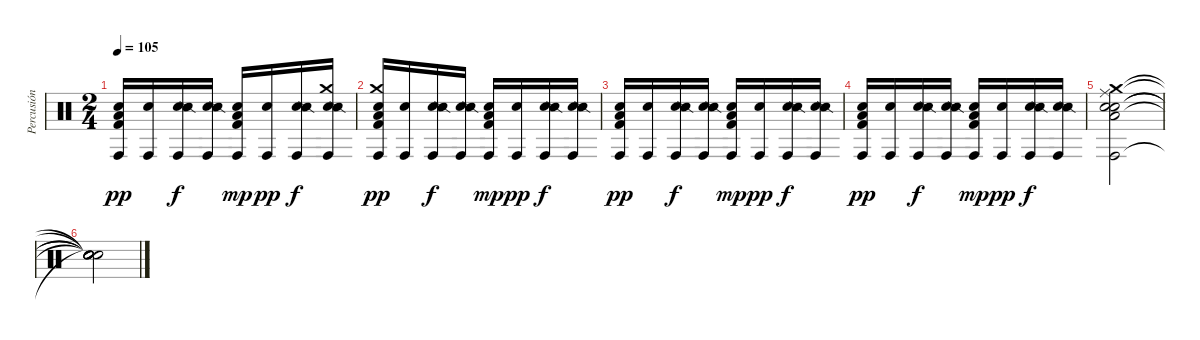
\track ("Percusión" "Percusión") {instrument percussion}
\staff {score}
\articulation defaults
\ts (2 4)
\tempo 105
\clef neutral
\ks c
("Electric Snare (hit)" "Kick (hit) 2" "Conga high (hit)" "Low Floor Tom (hit)").16{dy pp} ("Electric Snare (hit)" "Conga high (hit)").16 ("Electric Snare (hit)" "Snare (side stick) 2" "Conga high (hit)").16{dy f} ("Electric Snare (hit)" "Snare (side stick) 2" "Conga high (hit)").16 ("Electric Snare (hit)" "Conga high (hit)" "Kick (hit) 2" "Low Floor Tom (hit)").16{dy mp} ("Electric Snare (hit)" "Conga high (hit)").16{dy pp} ("Electric Snare (hit)" "Snare (side stick) 2" "Conga high (hit)").16{dy f} ("Electric Snare (hit)" "Snare (side stick) 2" "Conga high (hit)" "Crash medium (hit)").16 |
("Crash medium (hit)" "Electric Snare (hit)" "Kick (hit) 2" "Conga high (hit)" "Low Floor Tom (hit)").16{dy pp} ("Electric Snare (hit)" "Conga high (hit)").16 ("Electric Snare (hit)" "Snare (side stick) 2" "Conga high (hit)").16{dy f} ("Electric Snare (hit)" "Snare (side stick) 2" "Conga high (hit)").16 ("Electric Snare (hit)" "Conga high (hit)" "Kick (hit) 2" "Low Floor Tom (hit)").16{dy mp} ("Electric Snare (hit)" "Conga high (hit)").16{dy pp} ("Electric Snare (hit)" "Snare (side stick) 2" "Conga high (hit)").16{dy f} ("Electric Snare (hit)" "Snare (side stick) 2" "Conga high (hit)").16 |
("Electric Snare (hit)" "Kick (hit) 2" "Conga high (hit)" "Low Floor Tom (hit)").16{dy pp} ("Electric Snare (hit)" "Conga high (hit)").16 ("Electric Snare (hit)" "Snare (side stick) 2" "Conga high (hit)").16{dy f} ("Electric Snare (hit)" "Snare (side stick) 2" "Conga high (hit)").16 ("Electric Snare (hit)" "Conga high (hit)" "Kick (hit) 2" "Low Floor Tom (hit)").16{dy mp} ("Electric Snare (hit)" "Conga high (hit)").16{dy pp} ("Electric Snare (hit)" "Snare (side stick) 2" "Conga high (hit)").16{dy f} ("Electric Snare (hit)" "Snare (side stick) 2" "Conga high (hit)").16 |
("Electric Snare (hit)" "Kick (hit) 2" "Conga high (hit)" "Low Floor Tom (hit)").16{dy pp} ("Electric Snare (hit)" "Conga high (hit)").16 ("Electric Snare (hit)" "Snare (side stick) 2" "Conga high (hit)").16{dy f} ("Electric Snare (hit)" "Snare (side stick) 2" "Conga high (hit)").16 ("Electric Snare (hit)" "Conga high (hit)" "Kick (hit) 2" "Low Floor Tom (hit)").16{dy mp} ("Electric Snare (hit)" "Conga high (hit)").16{dy pp} ("Electric Snare (hit)" "Snare (side stick) 2" "Conga high (hit)").16{dy f} ("Electric Snare (hit)" "Snare (side stick) 2" "Conga high (hit)").16 |
("Ride (middle)" "Conga high (hit)" "Crash medium (hit)" "Snare (hit) 2" "Electric Snare (hit)" "Low Floor Tom (hit)").2 |
("Snare (hit)"{t} "Snare (hit)"{t} "Snare (hit)"{t} "Snare (hit)"{t} "Snare (hit)"{t} "Snare (hit)"{t}).2
